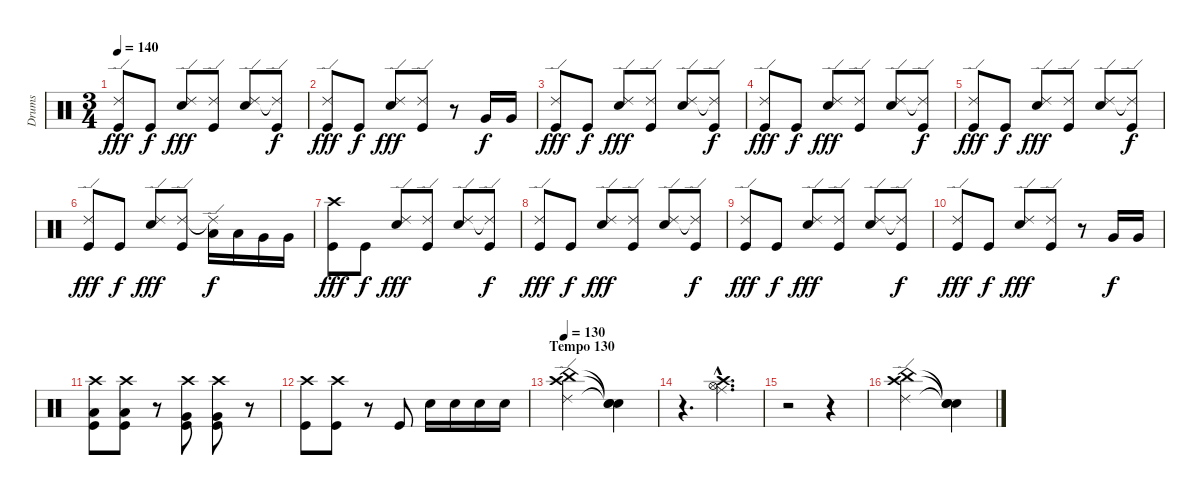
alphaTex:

\track ("Drums" "Drums") {instrument percussion}
\staff {score}
\articulation defaults
\ts (3 4)
\tempo 140
\clef neutral
\ks c
("Ride (edge) 2" "Kick (hit)").8{dy fff} "Kick (hit)".8{dy f} ("Ride (edge) 2" "Snare (hit) 2").8{dy fff} ("Ride (edge) 2" "Kick (hit)").8 ("Ride (edge) 2" "Snare (hit) 2").8 ("Ride (edge) 2"{t} "Kick (hit)").8{dy f} |
("Ride (edge) 2" "Kick (hit)").8{dy fff} "Kick (hit)".8{dy f} ("Ride (edge) 2" "Snare (hit) 2").8{dy fff} ("Ride (edge) 2" "Kick (hit)").8 r.8 "Very Low Tom (hit)".16{dy f} "Very Low Tom (hit)".16 |
("Ride (edge) 2" "Kick (hit)").8{dy fff} "Kick (hit)".8{dy f} ("Ride (edge) 2" "Snare (hit) 2").8{dy fff} ("Ride (edge) 2" "Kick (hit)").8 ("Ride (edge) 2" "Snare (hit) 2").8 ("Ride (edge) 2"{t} "Kick (hit)").8{dy f} |
("Ride (edge) 2" "Kick (hit)").8{dy fff} "Kick (hit)".8{dy f} ("Ride (edge) 2" "Snare (hit) 2").8{dy fff} ("Ride (edge) 2" "Kick (hit)").8 ("Ride (edge) 2" "Snare (hit) 2").8 ("Ride (edge) 2"{t} "Kick (hit)").8{dy f} |
("Ride (edge) 2" "Kick (hit)").8{dy fff} "Kick (hit)".8{dy f} ("Ride (edge) 2" "Snare (hit) 2").8{dy fff} ("Ride (edge) 2" "Kick (hit)").8 ("Ride (edge) 2" "Snare (hit) 2").8 ("Ride (edge) 2"{t} "Kick (hit)").8{dy f} |
("Ride (edge) 2" "Kick (hit)").8{dy fff} "Kick (hit)".8{dy f} ("Ride (edge) 2" "Snare (hit) 2").8{dy fff} ("Ride (edge) 2" "Kick (hit)").8 ("Ride (edge) 2"{t} "Low Tom (hit)").16{dy f} "Low Tom (hit)".16 "Very Low Tom (hit)".16 "Very Low Tom (hit)".16 |
("Crash high (hit)" "Kick (hit)").8{dy fff} "Kick (hit)".8{dy f} ("Ride (edge) 2" "Snare (hit) 2").8{dy fff} ("Ride (edge) 2" "Kick (hit)").8 ("Ride (edge) 2" "Snare (hit) 2").8 ("Ride (edge) 2"{t} "Kick (hit)").8{dy f} |
("Ride (edge) 2" "Kick (hit)").8{dy fff} "Kick (hit)".8{dy f} ("Ride (edge) 2" "Snare (hit) 2").8{dy fff} ("Ride (edge) 2" "Kick (hit)").8 ("Ride (edge) 2" "Snare (hit) 2").8 ("Ride (edge) 2"{t} "Kick (hit)").8{dy f} |
("Ride (edge) 2" "Kick (hit)").8{dy fff} "Kick (hit)".8{dy f} ("Ride (edge) 2" "Snare (hit) 2").8{dy fff} ("Ride (edge) 2" "Kick (hit)").8 ("Ride (edge) 2" "Snare (hit) 2").8 ("Ride (edge) 2"{t} "Kick (hit)").8{dy f} |
("Ride (edge) 2" "Kick (hit)").8{dy fff} "Kick (hit)".8{dy f} ("Ride (edge) 2" "Snare (hit) 2").8{dy fff} ("Ride (edge) 2" "Kick (hit)").8 r.8 "Very Low Tom (hit)".16{dy f} "Very Low Tom (hit)".16 |
("Crash high (hit)" "Low Tom (hit)" "Kick (hit)").8 ("Crash high (hit)" "Low Tom (hit)" "Kick (hit)").8 r.8 ("Crash high (hit)" "Very Low Tom (hit)" "Kick (hit)").8 ("Crash high (hit)" "Very Low Tom (hit)" "Kick (hit)").8 r.8 |
("Crash high (hit)" "Kick (hit)").8 ("Crash high (hit)" "Kick (hit)").8 r.8 "Kick (hit)".8 "Snare (hit) 2".16 "Snare (hit) 2".16 "Snare (hit) 2".16 "Snare (hit) 2".16 |
\section ("" "Tempo 130")
\tempo 130
("Ride (edge) 2" "Crash high (hit)" "China (hit)").2 ("Snare (hit)"{t} "Snare (hit)"{t} "Snare (hit)"{t}).4 |
r.4{d} ("Ride (middle)"{hac} "Hi-Hat (open)"{hac} "Crash high (hit)"{hac}).4{d} |
r.2 r.4 |
("Ride (edge) 2" "Crash high (hit)" "China (hit)").2 ("Snare (hit)"{t} "Snare (hit)"{t} "Snare (hit)"{t}).4
